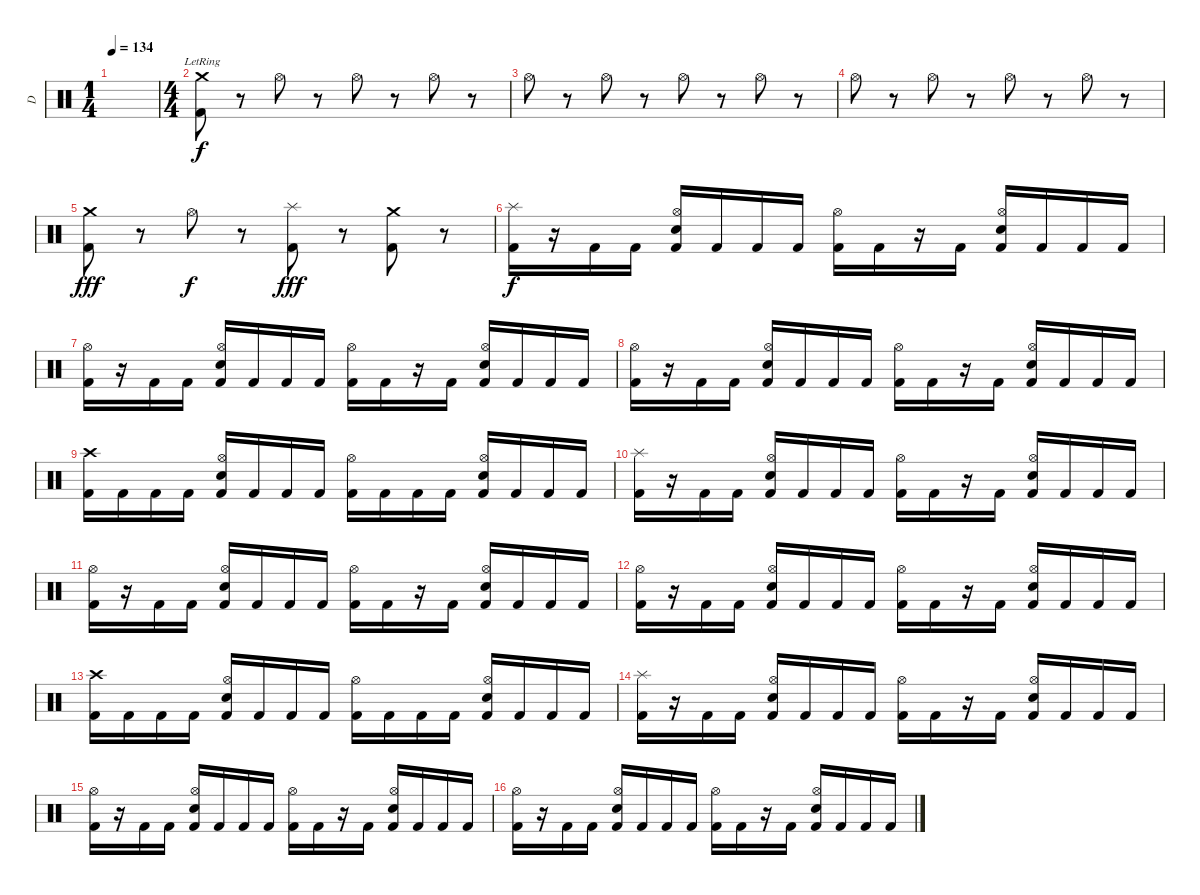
\track ("D" "D") {instrument percussion}
\staff {score}
\articulation defaults
\ts (1 4)
\tempo 134
\clef neutral
\ks c
|
\ts (4 4)
("Crash medium (hit)"{lr} "Kick (hit) 2").8 r.8 "Hi-Hat (open)".8{dy f} r.8 "Hi-Hat (open)".8 r.8 "Hi-Hat (open)".8 r.8 |
"Hi-Hat (open)".8 r.8 "Hi-Hat (open)".8 r.8 "Hi-Hat (open)".8 r.8 "Hi-Hat (open)".8 r.8 |
"Hi-Hat (open)".8 r.8 "Hi-Hat (open)".8 r.8 "Hi-Hat (open)".8 r.8 "Hi-Hat (open)".8 r.8 |
("Crash medium (hit)" "Kick (hit) 2").8{dy fff} r.8 "Hi-Hat (open)".8{dy f} r.8 ("Splash (hit)" "Kick (hit) 2").8{dy fff} r.8 ("Crash medium (hit)" "Kick (hit) 2").8 r.8 |
("Splash (hit)" "Kick (hit) 2").16{dy f} r.16 "Kick (hit) 2".16 "Kick (hit) 2".16 ("Hi-Hat (open)" "Snare (hit) 2" "Kick (hit) 2").16 "Kick (hit) 2".16 "Kick (hit) 2".16 "Kick (hit) 2".16 ("Hi-Hat (open)" "Kick (hit) 2").16 "Kick (hit) 2".16 r.16 "Kick (hit) 2".16 ("Hi-Hat (open)" "Snare (hit) 2" "Kick (hit) 2").16 "Kick (hit) 2".16 "Kick (hit) 2".16 "Kick (hit) 2".16 |
("Hi-Hat (open)" "Kick (hit) 2").16 r.16 "Kick (hit) 2".16 "Kick (hit) 2".16 ("Hi-Hat (open)" "Snare (hit) 2" "Kick (hit) 2").16 "Kick (hit) 2".16 "Kick (hit) 2".16 "Kick (hit) 2".16 ("Hi-Hat (open)" "Kick (hit) 2").16 "Kick (hit) 2".16 r.16 "Kick (hit) 2".16 ("Hi-Hat (open)" "Snare (hit) 2" "Kick (hit) 2").16 "Kick (hit) 2".16 "Kick (hit) 2".16 "Kick (hit) 2".16 |
("Hi-Hat (open)" "Kick (hit) 2").16 r.16 "Kick (hit) 2".16 "Kick (hit) 2".16 ("Hi-Hat (open)" "Snare (hit) 2" "Kick (hit) 2").16 "Kick (hit) 2".16 "Kick (hit) 2".16 "Kick (hit) 2".16 ("Hi-Hat (open)" "Kick (hit) 2").16 "Kick (hit) 2".16 r.16 "Kick (hit) 2".16 ("Hi-Hat (open)" "Snare (hit) 2" "Kick (hit) 2").16 "Kick (hit) 2".16 "Kick (hit) 2".16 "Kick (hit) 2".16 |
("Crash high (hit)" "Kick (hit) 2").16 "Kick (hit) 2".16 "Kick (hit) 2".16 "Kick (hit) 2".16 ("Hi-Hat (open)" "Snare (hit) 2" "Kick (hit) 2").16 "Kick (hit) 2".16 "Kick (hit) 2".16 "Kick (hit) 2".16 ("Hi-Hat (open)" "Kick (hit) 2").16 "Kick (hit) 2".16 "Kick (hit) 2".16 "Kick (hit) 2".16 ("Hi-Hat (open)" "Snare (hit) 2" "Kick (hit) 2").16 "Kick (hit) 2".16 "Kick (hit) 2".16 "Kick (hit) 2".16 |
("Splash (hit)" "Kick (hit) 2").16 r.16 "Kick (hit) 2".16 "Kick (hit) 2".16 ("Hi-Hat (open)" "Snare (hit) 2" "Kick (hit) 2").16 "Kick (hit) 2".16 "Kick (hit) 2".16 "Kick (hit) 2".16 ("Hi-Hat (open)" "Kick (hit) 2").16 "Kick (hit) 2".16 r.16 "Kick (hit) 2".16 ("Hi-Hat (open)" "Snare (hit) 2" "Kick (hit) 2").16 "Kick (hit) 2".16 "Kick (hit) 2".16 "Kick (hit) 2".16 |
("Hi-Hat (open)" "Kick (hit) 2").16 r.16 "Kick (hit) 2".16 "Kick (hit) 2".16 ("Hi-Hat (open)" "Snare (hit) 2" "Kick (hit) 2").16 "Kick (hit) 2".16 "Kick (hit) 2".16 "Kick (hit) 2".16 ("Hi-Hat (open)" "Kick (hit) 2").16 "Kick (hit) 2".16 r.16 "Kick (hit) 2".16 ("Hi-Hat (open)" "Snare (hit) 2" "Kick (hit) 2").16 "Kick (hit) 2".16 "Kick (hit) 2".16 "Kick (hit) 2".16 |
("Hi-Hat (open)" "Kick (hit) 2").16 r.16 "Kick (hit) 2".16 "Kick (hit) 2".16 ("Hi-Hat (open)" "Snare (hit) 2" "Kick (hit) 2").16 "Kick (hit) 2".16 "Kick (hit) 2".16 "Kick (hit) 2".16 ("Hi-Hat (open)" "Kick (hit) 2").16 "Kick (hit) 2".16 r.16 "Kick (hit) 2".16 ("Hi-Hat (open)" "Snare (hit) 2" "Kick (hit) 2").16 "Kick (hit) 2".16 "Kick (hit) 2".16 "Kick (hit) 2".16 |
("Crash high (hit)" "Kick (hit) 2").16 "Kick (hit) 2".16 "Kick (hit) 2".16 "Kick (hit) 2".16 ("Hi-Hat (open)" "Snare (hit) 2" "Kick (hit) 2").16 "Kick (hit) 2".16 "Kick (hit) 2".16 "Kick (hit) 2".16 ("Hi-Hat (open)" "Kick (hit) 2").16 "Kick (hit) 2".16 "Kick (hit) 2".16 "Kick (hit) 2".16 ("Hi-Hat (open)" "Snare (hit) 2" "Kick (hit) 2").16 "Kick (hit) 2".16 "Kick (hit) 2".16 "Kick (hit) 2".16 |
("Splash (hit)" "Kick (hit) 2").16 r.16 "Kick (hit) 2".16 "Kick (hit) 2".16 ("Hi-Hat (open)" "Snare (hit) 2" "Kick (hit) 2").16 "Kick (hit) 2".16 "Kick (hit) 2".16 "Kick (hit) 2".16 ("Hi-Hat (open)" "Kick (hit) 2").16 "Kick (hit) 2".16 r.16 "Kick (hit) 2".16 ("Hi-Hat (open)" "Snare (hit) 2" "Kick (hit) 2").16 "Kick (hit) 2".16 "Kick (hit) 2".16 "Kick (hit) 2".16 |
("Hi-Hat (open)" "Kick (hit) 2").16 r.16 "Kick (hit) 2".16 "Kick (hit) 2".16 ("Hi-Hat (open)" "Snare (hit) 2" "Kick (hit) 2").16 "Kick (hit) 2".16 "Kick (hit) 2".16 "Kick (hit) 2".16 ("Hi-Hat (open)" "Kick (hit) 2").16 "Kick (hit) 2".16 r.16 "Kick (hit) 2".16 ("Hi-Hat (open)" "Snare (hit) 2" "Kick (hit) 2").16 "Kick (hit) 2".16 "Kick (hit) 2".16 "Kick (hit) 2".16 |
("Hi-Hat (open)" "Kick (hit) 2").16 r.16 "Kick (hit) 2".16 "Kick (hit) 2".16 ("Hi-Hat (open)" "Snare (hit) 2" "Kick (hit) 2").16 "Kick (hit) 2".16 "Kick (hit) 2".16 "Kick (hit) 2".16 ("Hi-Hat (open)" "Kick (hit) 2").16 "Kick (hit) 2".16 r.16 "Kick (hit) 2".16 ("Hi-Hat (open)" "Snare (hit) 2" "Kick (hit) 2").16 "Kick (hit) 2".16 "Kick (hit) 2".16 "Kick (hit) 2".16
